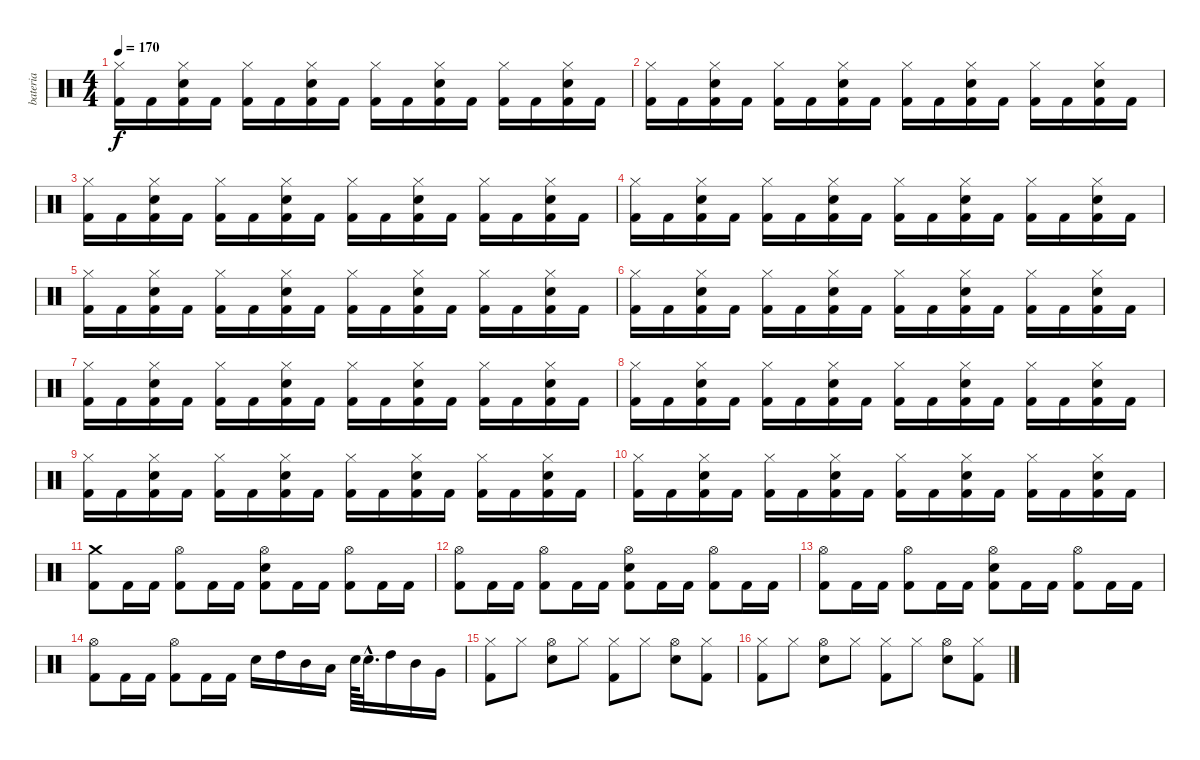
\track ("bateria" "bateria") {instrument percussion}
\staff {score}
\articulation defaults
\ts (4 4)
\tempo 170
\clef neutral
\ks c
("Hi-Hat (closed)" "Kick (hit) 2").16{dy f} "Kick (hit) 2".16 ("Hi-Hat (closed)" "Snare (hit) 2" "Kick (hit) 2").16 "Kick (hit) 2".16 ("Hi-Hat (closed)" "Kick (hit) 2").16 "Kick (hit) 2".16 ("Hi-Hat (closed)" "Snare (hit) 2" "Kick (hit) 2").16 "Kick (hit) 2".16 ("Hi-Hat (closed)" "Kick (hit) 2").16 "Kick (hit) 2".16 ("Hi-Hat (closed)" "Snare (hit) 2" "Kick (hit) 2").16 "Kick (hit) 2".16 ("Hi-Hat (closed)" "Kick (hit) 2").16 "Kick (hit) 2".16 ("Hi-Hat (closed)" "Snare (hit) 2" "Kick (hit) 2").16 "Kick (hit) 2".16 |
("Hi-Hat (closed)" "Kick (hit) 2").16 "Kick (hit) 2".16 ("Hi-Hat (closed)" "Snare (hit) 2" "Kick (hit) 2").16 "Kick (hit) 2".16 ("Hi-Hat (closed)" "Kick (hit) 2").16 "Kick (hit) 2".16 ("Hi-Hat (closed)" "Snare (hit) 2" "Kick (hit) 2").16 "Kick (hit) 2".16 ("Hi-Hat (closed)" "Kick (hit) 2").16 "Kick (hit) 2".16 ("Hi-Hat (closed)" "Snare (hit) 2" "Kick (hit) 2").16 "Kick (hit) 2".16 ("Hi-Hat (closed)" "Kick (hit) 2").16 "Kick (hit) 2".16 ("Hi-Hat (closed)" "Snare (hit) 2" "Kick (hit) 2").16 "Kick (hit) 2".16 |
("Hi-Hat (closed)" "Kick (hit) 2").16 "Kick (hit) 2".16 ("Hi-Hat (closed)" "Snare (hit) 2" "Kick (hit) 2").16 "Kick (hit) 2".16 ("Hi-Hat (closed)" "Kick (hit) 2").16 "Kick (hit) 2".16 ("Hi-Hat (closed)" "Snare (hit) 2" "Kick (hit) 2").16 "Kick (hit) 2".16 ("Hi-Hat (closed)" "Kick (hit) 2").16 "Kick (hit) 2".16 ("Hi-Hat (closed)" "Snare (hit) 2" "Kick (hit) 2").16 "Kick (hit) 2".16 ("Hi-Hat (closed)" "Kick (hit) 2").16 "Kick (hit) 2".16 ("Hi-Hat (closed)" "Snare (hit) 2" "Kick (hit) 2").16 "Kick (hit) 2".16 |
("Hi-Hat (closed)" "Kick (hit) 2").16 "Kick (hit) 2".16 ("Hi-Hat (closed)" "Snare (hit) 2" "Kick (hit) 2").16 "Kick (hit) 2".16 ("Hi-Hat (closed)" "Kick (hit) 2").16 "Kick (hit) 2".16 ("Hi-Hat (closed)" "Snare (hit) 2" "Kick (hit) 2").16 "Kick (hit) 2".16 ("Hi-Hat (closed)" "Kick (hit) 2").16 "Kick (hit) 2".16 ("Hi-Hat (closed)" "Snare (hit) 2" "Kick (hit) 2").16 "Kick (hit) 2".16 ("Hi-Hat (closed)" "Kick (hit) 2").16 "Kick (hit) 2".16 ("Hi-Hat (closed)" "Snare (hit) 2" "Kick (hit) 2").16 "Kick (hit) 2".16 |
("Hi-Hat (closed)" "Kick (hit) 2").16 "Kick (hit) 2".16 ("Hi-Hat (closed)" "Snare (hit) 2" "Kick (hit) 2").16 "Kick (hit) 2".16 ("Hi-Hat (closed)" "Kick (hit) 2").16 "Kick (hit) 2".16 ("Hi-Hat (closed)" "Snare (hit) 2" "Kick (hit) 2").16 "Kick (hit) 2".16 ("Hi-Hat (closed)" "Kick (hit) 2").16 "Kick (hit) 2".16 ("Hi-Hat (closed)" "Snare (hit) 2" "Kick (hit) 2").16 "Kick (hit) 2".16 ("Hi-Hat (closed)" "Kick (hit) 2").16 "Kick (hit) 2".16 ("Hi-Hat (closed)" "Snare (hit) 2" "Kick (hit) 2").16 "Kick (hit) 2".16 |
("Hi-Hat (closed)" "Kick (hit) 2").16 "Kick (hit) 2".16 ("Hi-Hat (closed)" "Snare (hit) 2" "Kick (hit) 2").16 "Kick (hit) 2".16 ("Hi-Hat (closed)" "Kick (hit) 2").16 "Kick (hit) 2".16 ("Hi-Hat (closed)" "Snare (hit) 2" "Kick (hit) 2").16 "Kick (hit) 2".16 ("Hi-Hat (closed)" "Kick (hit) 2").16 "Kick (hit) 2".16 ("Hi-Hat (closed)" "Snare (hit) 2" "Kick (hit) 2").16 "Kick (hit) 2".16 ("Hi-Hat (closed)" "Kick (hit) 2").16 "Kick (hit) 2".16 ("Hi-Hat (closed)" "Snare (hit) 2" "Kick (hit) 2").16 "Kick (hit) 2".16 |
("Hi-Hat (closed)" "Kick (hit) 2").16 "Kick (hit) 2".16 ("Hi-Hat (closed)" "Snare (hit) 2" "Kick (hit) 2").16 "Kick (hit) 2".16 ("Hi-Hat (closed)" "Kick (hit) 2").16 "Kick (hit) 2".16 ("Hi-Hat (closed)" "Snare (hit) 2" "Kick (hit) 2").16 "Kick (hit) 2".16 ("Hi-Hat (closed)" "Kick (hit) 2").16 "Kick (hit) 2".16 ("Hi-Hat (closed)" "Snare (hit) 2" "Kick (hit) 2").16 "Kick (hit) 2".16 ("Hi-Hat (closed)" "Kick (hit) 2").16 "Kick (hit) 2".16 ("Hi-Hat (closed)" "Snare (hit) 2" "Kick (hit) 2").16 "Kick (hit) 2".16 |
("Hi-Hat (closed)" "Kick (hit) 2").16 "Kick (hit) 2".16 ("Hi-Hat (closed)" "Snare (hit) 2" "Kick (hit) 2").16 "Kick (hit) 2".16 ("Hi-Hat (closed)" "Kick (hit) 2").16 "Kick (hit) 2".16 ("Hi-Hat (closed)" "Snare (hit) 2" "Kick (hit) 2").16 "Kick (hit) 2".16 ("Hi-Hat (closed)" "Kick (hit) 2").16 "Kick (hit) 2".16 ("Hi-Hat (closed)" "Snare (hit) 2" "Kick (hit) 2").16 "Kick (hit) 2".16 ("Hi-Hat (closed)" "Kick (hit) 2").16 "Kick (hit) 2".16 ("Hi-Hat (closed)" "Snare (hit) 2" "Kick (hit) 2").16 "Kick (hit) 2".16 |
("Hi-Hat (closed)" "Kick (hit) 2").16 "Kick (hit) 2".16 ("Hi-Hat (closed)" "Snare (hit) 2" "Kick (hit) 2").16 "Kick (hit) 2".16 ("Hi-Hat (closed)" "Kick (hit) 2").16 "Kick (hit) 2".16 ("Hi-Hat (closed)" "Snare (hit) 2" "Kick (hit) 2").16 "Kick (hit) 2".16 ("Hi-Hat (closed)" "Kick (hit) 2").16 "Kick (hit) 2".16 ("Hi-Hat (closed)" "Snare (hit) 2" "Kick (hit) 2").16 "Kick (hit) 2".16 ("Hi-Hat (closed)" "Kick (hit) 2").16 "Kick (hit) 2".16 ("Hi-Hat (closed)" "Snare (hit) 2" "Kick (hit) 2").16 "Kick (hit) 2".16 |
("Hi-Hat (closed)" "Kick (hit) 2").16 "Kick (hit) 2".16 ("Hi-Hat (closed)" "Snare (hit) 2" "Kick (hit) 2").16 "Kick (hit) 2".16 ("Hi-Hat (closed)" "Kick (hit) 2").16 "Kick (hit) 2".16 ("Hi-Hat (closed)" "Snare (hit) 2" "Kick (hit) 2").16 "Kick (hit) 2".16 ("Hi-Hat (closed)" "Kick (hit) 2").16 "Kick (hit) 2".16 ("Hi-Hat (closed)" "Snare (hit) 2" "Kick (hit) 2").16 "Kick (hit) 2".16 ("Hi-Hat (closed)" "Kick (hit) 2").16 "Kick (hit) 2".16 ("Hi-Hat (closed)" "Snare (hit) 2" "Kick (hit) 2").16 "Kick (hit) 2".16 |
("Crash medium (hit)" "Kick (hit) 2").8 "Kick (hit) 2".16 "Kick (hit) 2".16 ("Hi-Hat (open)" "Kick (hit) 2").8 "Kick (hit) 2".16 "Kick (hit) 2".16 ("Hi-Hat (open)" "Snare (hit) 2" "Kick (hit) 2").8 "Kick (hit) 2".16 "Kick (hit) 2".16 ("Hi-Hat (open)" "Kick (hit) 2").8 "Kick (hit) 2".16 "Kick (hit) 2".16 |
("Hi-Hat (open)" "Kick (hit) 2").8 "Kick (hit) 2".16 "Kick (hit) 2".16 ("Hi-Hat (open)" "Kick (hit) 2").8 "Kick (hit) 2".16 "Kick (hit) 2".16 ("Hi-Hat (open)" "Snare (hit) 2" "Kick (hit) 2").8 "Kick (hit) 2".16 "Kick (hit) 2".16 ("Hi-Hat (open)" "Kick (hit) 2").8 "Kick (hit) 2".16 "Kick (hit) 2".16 |
("Hi-Hat (open)" "Kick (hit) 2").8 "Kick (hit) 2".16 "Kick (hit) 2".16 ("Hi-Hat (open)" "Kick (hit) 2").8 "Kick (hit) 2".16 "Kick (hit) 2".16 ("Hi-Hat (open)" "Snare (hit) 2" "Kick (hit) 2").8 "Kick (hit) 2".16 "Kick (hit) 2".16 ("Hi-Hat (open)" "Kick (hit) 2").8 "Kick (hit) 2".16 "Kick (hit) 2".16 |
("Hi-Hat (open)" "Kick (hit) 2").8 "Kick (hit) 2".16 "Kick (hit) 2".16 ("Hi-Hat (open)" "Kick (hit) 2").8 "Kick (hit) 2".16 "Kick (hit) 2".16 "Snare (hit) 2".16 "High Tom (hit)".16 "Mid Tom (hit)".16 "Low Tom (hit)".16 "Snare (hit) 2".64 "Snare (hit) 2"{hac}.32{d} "High Tom (hit)".16 "Mid Tom (hit)".16 "Very Low Tom (hit)".16 |
("Hi-Hat (closed)" "Kick (hit) 2").8 "Hi-Hat (closed)".8 ("Hi-Hat (open)" "Snare (hit) 2").8 "Hi-Hat (closed)".8 ("Hi-Hat (closed)" "Kick (hit) 2").8 "Hi-Hat (closed)".8 ("Hi-Hat (open)" "Snare (hit) 2").8 ("Hi-Hat (closed)" "Kick (hit) 2").8 |
("Hi-Hat (closed)" "Kick (hit) 2").8 "Hi-Hat (closed)".8 ("Hi-Hat (open)" "Snare (hit) 2").8 "Hi-Hat (closed)".8 ("Hi-Hat (closed)" "Kick (hit) 2").8 "Hi-Hat (closed)".8 ("Hi-Hat (open)" "Snare (hit) 2").8 ("Hi-Hat (closed)" "Kick (hit) 2").8
